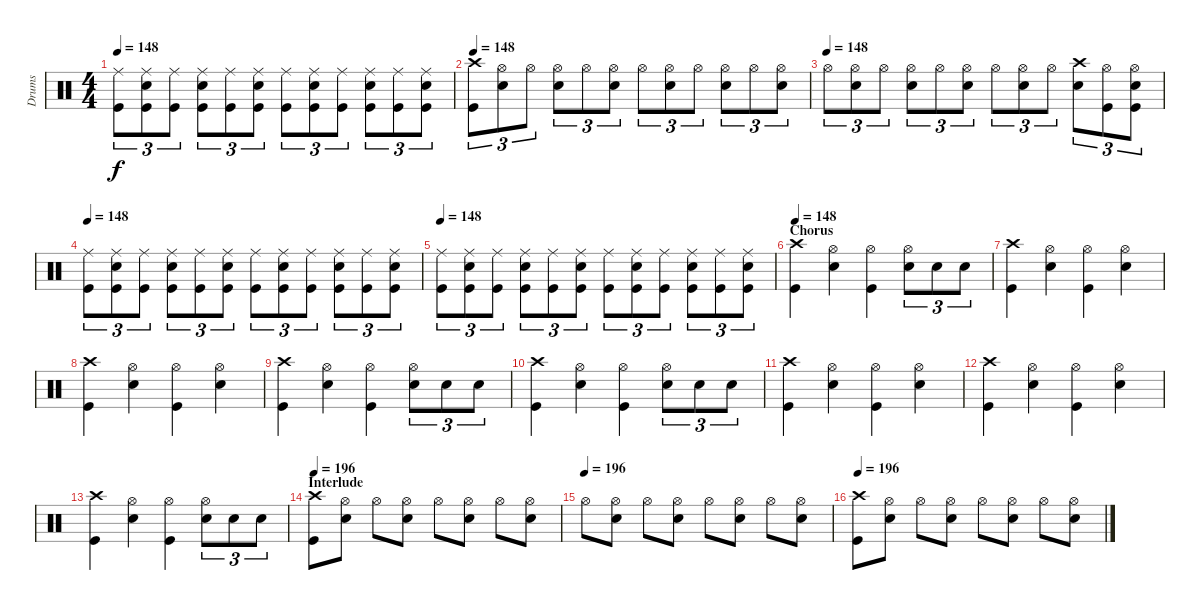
\track ("Drums" "Drums") {instrument percussion}
\staff {score}
\articulation defaults
\ts (4 4)
\tempo 148
\clef neutral
\ks c
("Ride (middle)" "Kick (hit)").8{tu (3 2) dy f} ("Ride (middle)" "Electric Snare (hit)" "Kick (hit)").8{tu (3 2)} ("Ride (middle)" "Kick (hit)").8{tu (3 2)} ("Ride (middle)" "Electric Snare (hit)" "Kick (hit)").8{tu (3 2)} ("Ride (middle)" "Kick (hit)").8{tu (3 2)} ("Ride (middle)" "Electric Snare (hit)" "Kick (hit)").8{tu (3 2)} ("Ride (middle)" "Kick (hit)").8{tu (3 2)} ("Ride (middle)" "Electric Snare (hit)" "Kick (hit)").8{tu (3 2)} ("Ride (middle)" "Kick (hit)").8{tu (3 2)} ("Ride (middle)" "Electric Snare (hit)" "Kick (hit)").8{tu (3 2)} ("Ride (middle)" "Kick (hit)").8{tu (3 2)} ("Ride (middle)" "Electric Snare (hit)" "Kick (hit)").8{tu (3 2)} |
\tempo 148
("Crash high (hit)" "Kick (hit)").8{tu (3 2)} ("Hi-Hat (open)" "Electric Snare (hit)").8{tu (3 2)} "Hi-Hat (open)".8{tu (3 2)} ("Hi-Hat (open)" "Electric Snare (hit)").8{tu (3 2)} "Hi-Hat (open)".8{tu (3 2)} ("Hi-Hat (open)" "Electric Snare (hit)").8{tu (3 2)} "Hi-Hat (open)".8{tu (3 2)} ("Hi-Hat (open)" "Electric Snare (hit)").8{tu (3 2)} "Hi-Hat (open)".8{tu (3 2)} ("Hi-Hat (open)" "Electric Snare (hit)").8{tu (3 2)} "Hi-Hat (open)".8{tu (3 2)} ("Hi-Hat (open)" "Electric Snare (hit)").8{tu (3 2)} |
\tempo (148)
"Hi-Hat (open)".8{tu (3 2)} ("Hi-Hat (open)" "Electric Snare (hit)").8{tu (3 2)} "Hi-Hat (open)".8{tu (3 2)} ("Hi-Hat (open)" "Electric Snare (hit)").8{tu (3 2)} "Hi-Hat (open)".8{tu (3 2)} ("Hi-Hat (open)" "Electric Snare (hit)").8{tu (3 2)} "Hi-Hat (open)".8{tu (3 2)} ("Hi-Hat (open)" "Electric Snare (hit)").8{tu (3 2)} "Hi-Hat (open)".8{tu (3 2)} ("Crash high (hit)" "Electric Snare (hit)").8{tu (3 2)} ("Hi-Hat (open)" "Kick (hit)").8{tu (3 2)} ("Hi-Hat (open)" "Electric Snare (hit)" "Kick (hit)").8{tu (3 2)} |
\tempo 148
("Ride (middle)" "Kick (hit)").8{tu (3 2)} ("Ride (middle)" "Electric Snare (hit)" "Kick (hit)").8{tu (3 2)} ("Ride (middle)" "Kick (hit)").8{tu (3 2)} ("Ride (middle)" "Electric Snare (hit)" "Kick (hit)").8{tu (3 2)} ("Ride (middle)" "Kick (hit)").8{tu (3 2)} ("Ride (middle)" "Electric Snare (hit)" "Kick (hit)").8{tu (3 2)} ("Ride (middle)" "Kick (hit)").8{tu (3 2)} ("Ride (middle)" "Electric Snare (hit)" "Kick (hit)").8{tu (3 2)} ("Ride (middle)" "Kick (hit)").8{tu (3 2)} ("Ride (middle)" "Electric Snare (hit)" "Kick (hit)").8{tu (3 2)} ("Ride (middle)" "Kick (hit)").8{tu (3 2)} ("Ride (middle)" "Electric Snare (hit)" "Kick (hit)").8{tu (3 2)} |
\tempo 148
("Ride (middle)" "Kick (hit)").8{tu (3 2)} ("Ride (middle)" "Electric Snare (hit)" "Kick (hit)").8{tu (3 2)} ("Ride (middle)" "Kick (hit)").8{tu (3 2)} ("Ride (middle)" "Electric Snare (hit)" "Kick (hit)").8{tu (3 2)} ("Ride (middle)" "Kick (hit)").8{tu (3 2)} ("Ride (middle)" "Electric Snare (hit)" "Kick (hit)").8{tu (3 2)} ("Ride (middle)" "Kick (hit)").8{tu (3 2)} ("Ride (middle)" "Electric Snare (hit)" "Kick (hit)").8{tu (3 2)} ("Ride (middle)" "Kick (hit)").8{tu (3 2)} ("Ride (middle)" "Electric Snare (hit)" "Kick (hit)").8{tu (3 2)} ("Ride (middle)" "Kick (hit)").8{tu (3 2)} ("Ride (middle)" "Electric Snare (hit)" "Kick (hit)").8{tu (3 2)} |
\section ("" "Chorus")
\tempo 148
("Crash high (hit)" "Kick (hit)").4 ("Hi-Hat (open)" "Electric Snare (hit)").4 ("Hi-Hat (open)" "Kick (hit)").4 ("Hi-Hat (open)" "Electric Snare (hit)").8{tu (3 2)} "Electric Snare (hit)".8{tu (3 2)} "Electric Snare (hit)".8{tu (3 2)} |
("Crash high (hit)" "Kick (hit)").4 ("Hi-Hat (open)" "Electric Snare (hit)").4 ("Hi-Hat (open)" "Kick (hit)").4 ("Hi-Hat (open)" "Electric Snare (hit)").4 |
("Crash high (hit)" "Kick (hit)").4 ("Hi-Hat (open)" "Electric Snare (hit)").4 ("Hi-Hat (open)" "Kick (hit)").4 ("Hi-Hat (open)" "Electric Snare (hit)").4 |
("Crash high (hit)" "Kick (hit)").4 ("Hi-Hat (open)" "Electric Snare (hit)").4 ("Hi-Hat (open)" "Kick (hit)").4 ("Hi-Hat (open)" "Electric Snare (hit)").8{tu (3 2)} "Electric Snare (hit)".8{tu (3 2)} "Electric Snare (hit)".8{tu (3 2)} |
("Crash high (hit)" "Kick (hit)").4 ("Hi-Hat (open)" "Electric Snare (hit)").4 ("Hi-Hat (open)" "Kick (hit)").4 ("Hi-Hat (open)" "Electric Snare (hit)").8{tu (3 2)} "Electric Snare (hit)".8{tu (3 2)} "Electric Snare (hit)".8{tu (3 2)} |
("Crash high (hit)" "Kick (hit)").4 ("Hi-Hat (open)" "Electric Snare (hit)").4 ("Hi-Hat (open)" "Kick (hit)").4 ("Hi-Hat (open)" "Electric Snare (hit)").4 |
("Crash high (hit)" "Kick (hit)").4 ("Hi-Hat (open)" "Electric Snare (hit)").4 ("Hi-Hat (open)" "Kick (hit)").4 ("Hi-Hat (open)" "Electric Snare (hit)").4 |
("Crash high (hit)" "Kick (hit)").4 ("Hi-Hat (open)" "Electric Snare (hit)").4 ("Hi-Hat (open)" "Kick (hit)").4 ("Hi-Hat (open)" "Electric Snare (hit)").8{tu (3 2)} "Electric Snare (hit)".8{tu (3 2)} "Electric Snare (hit)".8{tu (3 2)} |
\section ("" "Interlude")
\tempo 196
("Crash high (hit)" "Kick (hit)").8 ("Hi-Hat (open)" "Electric Snare (hit)").8 "Hi-Hat (open)".8 ("Hi-Hat (open)" "Electric Snare (hit)").8 "Hi-Hat (open)".8 ("Hi-Hat (open)" "Electric Snare (hit)").8 "Hi-Hat (open)".8 ("Hi-Hat (open)" "Electric Snare (hit)").8 |
\tempo (196)
"Hi-Hat (open)".8 ("Hi-Hat (open)" "Electric Snare (hit)").8 "Hi-Hat (open)".8 ("Hi-Hat (open)" "Electric Snare (hit)").8 "Hi-Hat (open)".8 ("Hi-Hat (open)" "Electric Snare (hit)").8 "Hi-Hat (open)".8 ("Hi-Hat (open)" "Electric Snare (hit)").8 |
\tempo 196
("Crash high (hit)" "Kick (hit)").8 ("Hi-Hat (open)" "Electric Snare (hit)").8 "Hi-Hat (open)".8 ("Hi-Hat (open)" "Electric Snare (hit)").8 "Hi-Hat (open)".8 ("Hi-Hat (open)" "Electric Snare (hit)").8 "Hi-Hat (open)".8 ("Hi-Hat (open)" "Electric Snare (hit)").8
